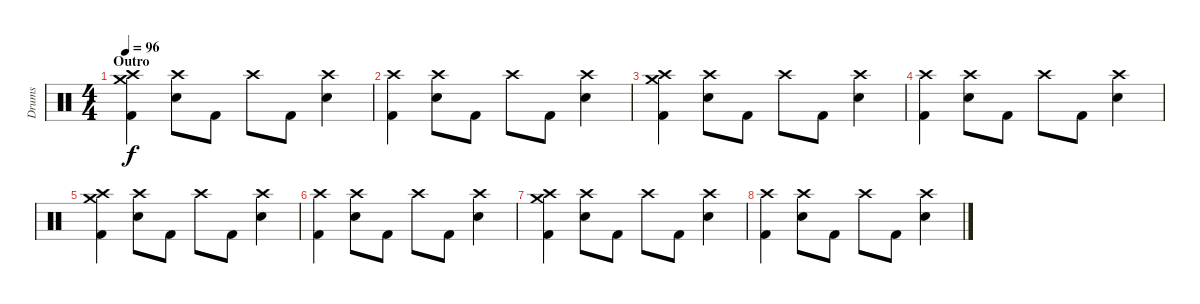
\track ("Drums" "Drums") {instrument percussion}
\staff {score}
\articulation defaults
\ts (4 4)
\section ("" "Outro")
\tempo 96
\clef neutral
\ks c
("Crash high (hit)" "Crash medium (hit)" "Kick (hit) 2").4{dy f} ("Crash high (hit)" "Electric Snare (hit)").8 "Kick (hit) 2".8 "Crash high (hit)".8 "Kick (hit) 2".8 ("Crash high (hit)" "Electric Snare (hit)").4 |
("Crash high (hit)" "Kick (hit) 2").4 ("Crash high (hit)" "Electric Snare (hit)").8 "Kick (hit) 2".8 "Crash high (hit)".8 "Kick (hit) 2".8 ("Crash high (hit)" "Electric Snare (hit)").4 |
("Crash high (hit)" "Crash medium (hit)" "Kick (hit) 2").4 ("Crash high (hit)" "Electric Snare (hit)").8 "Kick (hit) 2".8 "Crash high (hit)".8 "Kick (hit) 2".8 ("Crash high (hit)" "Electric Snare (hit)").4 |
("Crash high (hit)" "Kick (hit) 2").4 ("Crash high (hit)" "Electric Snare (hit)").8 "Kick (hit) 2".8 "Crash high (hit)".8 "Kick (hit) 2".8 ("Crash high (hit)" "Electric Snare (hit)").4 |
("Crash high (hit)" "Crash medium (hit)" "Kick (hit) 2").4 ("Crash high (hit)" "Electric Snare (hit)").8 "Kick (hit) 2".8 "Crash high (hit)".8 "Kick (hit) 2".8 ("Crash high (hit)" "Electric Snare (hit)").4 |
("Crash high (hit)" "Kick (hit) 2").4 ("Crash high (hit)" "Electric Snare (hit)").8 "Kick (hit) 2".8 "Crash high (hit)".8 "Kick (hit) 2".8 ("Crash high (hit)" "Electric Snare (hit)").4 |
("Crash high (hit)" "Crash medium (hit)" "Kick (hit) 2").4 ("Crash high (hit)" "Electric Snare (hit)").8 "Kick (hit) 2".8 "Crash high (hit)".8 "Kick (hit) 2".8 ("Crash high (hit)" "Electric Snare (hit)").4 |
("Crash high (hit)" "Kick (hit) 2").4 ("Crash high (hit)" "Electric Snare (hit)").8 "Kick (hit) 2".8 "Crash high (hit)".8 "Kick (hit) 2".8 ("Crash high (hit)" "Electric Snare (hit)").4
